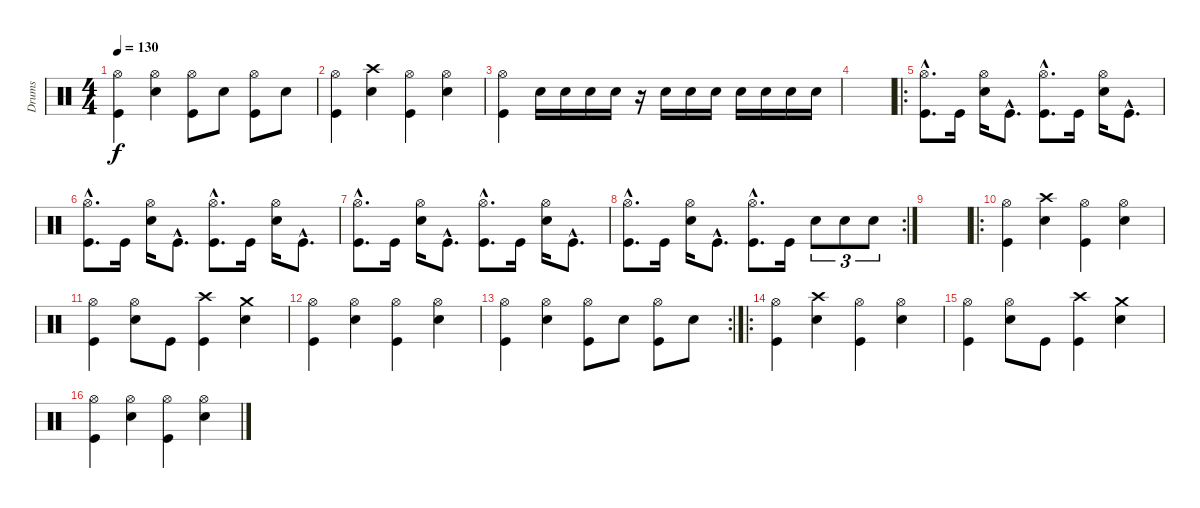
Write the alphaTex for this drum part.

\track ("Drums" "Drums") {instrument percussion}
\staff {score}
\articulation defaults
\ts (4 4)
\tempo 130
\clef neutral
\ks c
("Hi-Hat (open)" "Kick (hit)").4{dy f} ("Hi-Hat (open)" "Snare (hit) 2").4 ("Hi-Hat (open)" "Kick (hit)").8 "Snare (hit) 2".8 ("Hi-Hat (open)" "Kick (hit)").8 "Snare (hit) 2".8 |
("Hi-Hat (open)" "Kick (hit)").4 ("Crash high (hit)" "Snare (hit) 2").4 ("Hi-Hat (open)" "Kick (hit)").4 ("Hi-Hat (open)" "Snare (hit) 2").4 |
("Hi-Hat (open)" "Kick (hit)").4 "Snare (hit) 2".16 "Snare (hit) 2".16 "Snare (hit) 2".16 "Snare (hit) 2".16 r.16 "Snare (hit) 2".16 "Snare (hit) 2".16 "Snare (hit) 2".16 "Snare (hit) 2".16 "Snare (hit) 2".16 "Snare (hit) 2".16 "Snare (hit) 2".16 |
|
\ro
("Hi-Hat (open)"{hac} "Kick (hit)"{hac}).8{d} "Kick (hit)".16 ("Hi-Hat (open)" "Snare (hit) 2").16 "Kick (hit)"{hac}.8{d} ("Hi-Hat (open)"{hac} "Kick (hit)"{hac}).8{d} "Kick (hit)".16 ("Hi-Hat (open)" "Snare (hit) 2").16 "Kick (hit)"{hac}.8{d} |
("Hi-Hat (open)"{hac} "Kick (hit)"{hac}).8{d} "Kick (hit)".16 ("Hi-Hat (open)" "Snare (hit) 2").16 "Kick (hit)"{hac}.8{d} ("Hi-Hat (open)"{hac} "Kick (hit)"{hac}).8{d} "Kick (hit)".16 ("Hi-Hat (open)" "Snare (hit) 2").16 "Kick (hit)"{hac}.8{d} |
("Hi-Hat (open)"{hac} "Kick (hit)"{hac}).8{d} "Kick (hit)".16 ("Hi-Hat (open)" "Snare (hit) 2").16 "Kick (hit)"{hac}.8{d} ("Hi-Hat (open)"{hac} "Kick (hit)"{hac}).8{d} "Kick (hit)".16 ("Hi-Hat (open)" "Snare (hit) 2").16 "Kick (hit)"{hac}.8{d} |
\rc 2
("Hi-Hat (open)"{hac} "Kick (hit)"{hac}).8{d} "Kick (hit)".16 ("Hi-Hat (open)" "Snare (hit) 2").16 "Kick (hit)"{hac}.8{d} ("Hi-Hat (open)"{hac} "Kick (hit)"{hac}).8{d} "Kick (hit)".16 "Snare (hit) 2".8{tu (3 2)} "Snare (hit) 2".8{tu (3 2)} "Snare (hit) 2".8{tu (3 2)} |
|
\ro
("Hi-Hat (open)" "Kick (hit)").4 ("Crash high (hit)" "Snare (hit) 2").4 ("Hi-Hat (open)" "Kick (hit)").4 ("Hi-Hat (open)" "Snare (hit) 2").4 |
("Hi-Hat (open)" "Kick (hit)").4 ("Hi-Hat (open)" "Snare (hit) 2").8 "Kick (hit)".8 ("Crash high (hit)" "Kick (hit)").4 ("Crash medium (hit)" "Snare (hit) 2").4 |
("Hi-Hat (open)" "Kick (hit)").4 ("Hi-Hat (open)" "Snare (hit) 2").4 ("Hi-Hat (open)" "Kick (hit)").4 ("Hi-Hat (open)" "Snare (hit) 2").4 |
\rc 2
("Hi-Hat (open)" "Kick (hit)").4 ("Hi-Hat (open)" "Snare (hit) 2").4 ("Hi-Hat (open)" "Kick (hit)").8 "Snare (hit) 2".8 ("Hi-Hat (open)" "Kick (hit)").8 "Snare (hit) 2".8 |
\ro
("Hi-Hat (open)" "Kick (hit)").4 ("Crash high (hit)" "Snare (hit) 2").4 ("Hi-Hat (open)" "Kick (hit)").4 ("Hi-Hat (open)" "Snare (hit) 2").4 |
("Hi-Hat (open)" "Kick (hit)").4 ("Hi-Hat (open)" "Snare (hit) 2").8 "Kick (hit)".8 ("Crash high (hit)" "Kick (hit)").4 ("Crash medium (hit)" "Snare (hit) 2").4 |
("Hi-Hat (open)" "Kick (hit)").4 ("Hi-Hat (open)" "Snare (hit) 2").4 ("Hi-Hat (open)" "Kick (hit)").4 ("Hi-Hat (open)" "Snare (hit) 2").4
